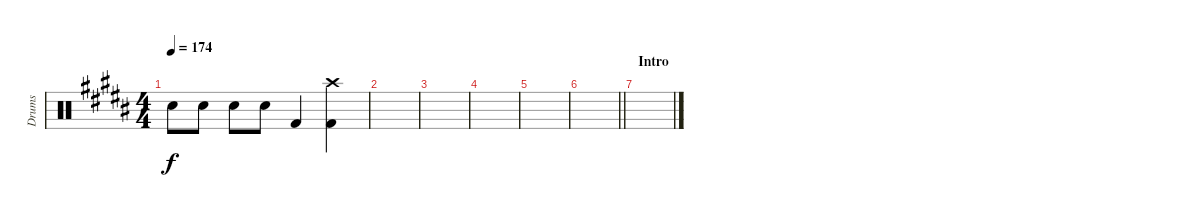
\track ("Drums" "Drums") {instrument percussion}
\staff {score}
\articulation defaults
\ts (4 4)
\tempo 174
\clef neutral
\ks g#minor "Electric Snare (hit)".8{dy f} "Electric Snare (hit)".8 "Electric Snare (hit)".8 "Electric Snare (hit)".8 "Kick (hit) 2".4
("Crash high (hit)" "Kick (hit) 2").4 |
|
|
|
|
\barLineRight lightlight
|
\section ("" "Intro")
